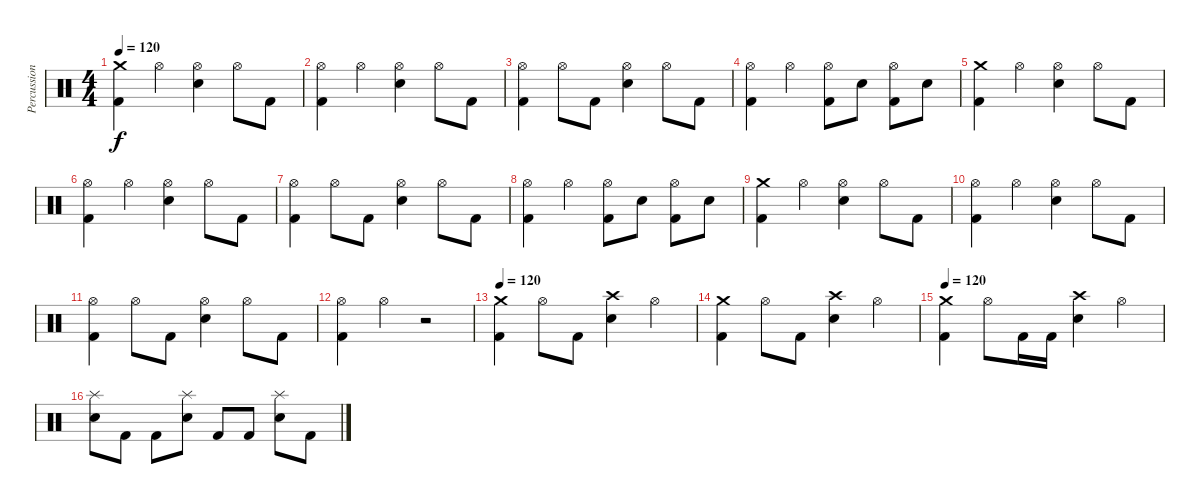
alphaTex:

\track ("Percussions" "Percussion") {instrument percussion}
\staff {score}
\articulation defaults
\ts (4 4)
\tempo 120
\clef neutral
\ks c
("Crash medium (hit)" "Kick (hit) 2").4{dy f} "Hi-Hat (open)".4 ("Hi-Hat (open)" "Electric Snare (hit)").4 "Hi-Hat (open)".8 "Kick (hit) 2".8 |
("Hi-Hat (open)" "Kick (hit) 2").4 "Hi-Hat (open)".4 ("Hi-Hat (open)" "Electric Snare (hit)").4 "Hi-Hat (open)".8 "Kick (hit) 2".8 |
("Hi-Hat (open)" "Kick (hit) 2").4 "Hi-Hat (open)".8 "Kick (hit) 2".8 ("Hi-Hat (open)" "Electric Snare (hit)").4 "Hi-Hat (open)".8 "Kick (hit) 2".8 |
("Hi-Hat (open)" "Kick (hit) 2").4 "Hi-Hat (open)".4 ("Hi-Hat (open)" "Kick (hit) 2").8 "Electric Snare (hit)".8 ("Hi-Hat (open)" "Kick (hit) 2").8 "Electric Snare (hit)".8 |
("Crash medium (hit)" "Kick (hit) 2").4 "Hi-Hat (open)".4 ("Hi-Hat (open)" "Electric Snare (hit)").4 "Hi-Hat (open)".8 "Kick (hit) 2".8 |
("Hi-Hat (open)" "Kick (hit) 2").4 "Hi-Hat (open)".4 ("Hi-Hat (open)" "Electric Snare (hit)").4 "Hi-Hat (open)".8 "Kick (hit) 2".8 |
("Hi-Hat (open)" "Kick (hit) 2").4 "Hi-Hat (open)".8 "Kick (hit) 2".8 ("Hi-Hat (open)" "Electric Snare (hit)").4 "Hi-Hat (open)".8 "Kick (hit) 2".8 |
("Hi-Hat (open)" "Kick (hit) 2").4 "Hi-Hat (open)".4 ("Hi-Hat (open)" "Kick (hit) 2").8 "Electric Snare (hit)".8 ("Hi-Hat (open)" "Kick (hit) 2").8 "Electric Snare (hit)".8 |
("Crash medium (hit)" "Kick (hit) 2").4 "Hi-Hat (open)".4 ("Hi-Hat (open)" "Electric Snare (hit)").4 "Hi-Hat (open)".8 "Kick (hit) 2".8 |
("Hi-Hat (open)" "Kick (hit) 2").4 "Hi-Hat (open)".4 ("Hi-Hat (open)" "Electric Snare (hit)").4 "Hi-Hat (open)".8 "Kick (hit) 2".8 |
("Hi-Hat (open)" "Kick (hit) 2").4 "Hi-Hat (open)".8 "Kick (hit) 2".8 ("Hi-Hat (open)" "Electric Snare (hit)").4 "Hi-Hat (open)".8 "Kick (hit) 2".8 |
("Hi-Hat (open)" "Kick (hit) 2").4 "Hi-Hat (open)".4 r.2 |
\tempo 120
("Crash medium (hit)" "Kick (hit) 2").4 "Hi-Hat (open)".8 "Kick (hit) 2".8 ("Crash high (hit)" "Electric Snare (hit)").4 "Hi-Hat (open)".4 |
("Crash medium (hit)" "Kick (hit) 2").4 "Hi-Hat (open)".8 "Kick (hit) 2".8 ("Crash high (hit)" "Electric Snare (hit)").4 "Hi-Hat (open)".4 |
\tempo 120
("Crash medium (hit)" "Kick (hit) 2").4 "Hi-Hat (open)".8 "Kick (hit) 2".16 "Kick (hit) 2".16 ("Crash high (hit)" "Electric Snare (hit)").4 "Hi-Hat (open)".4 |
("Splash (hit)" "Electric Snare (hit)").8 "Kick (hit) 2".8 "Kick (hit) 2".8 ("Splash (hit)" "Electric Snare (hit)").8 "Kick (hit) 2".8 "Kick (hit) 2".8 ("Splash (hit)" "Electric Snare (hit)").8 "Kick (hit) 2".8
